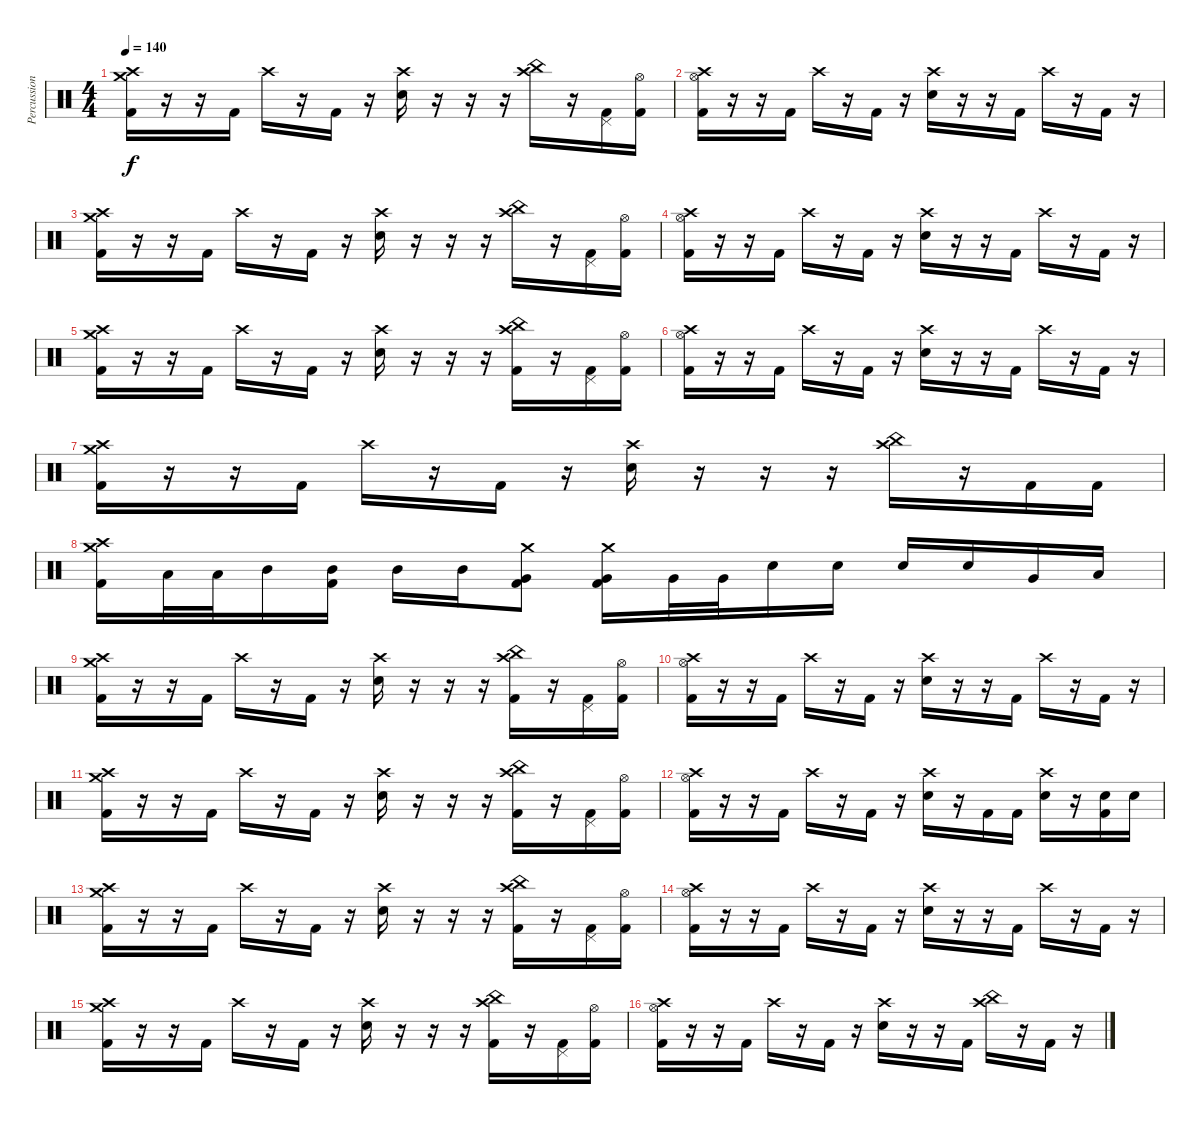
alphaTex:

\track ("Percussion" "Percussion") {instrument percussion}
\staff {score}
\articulation defaults
\ts (4 4)
\tempo 140
\clef neutral
\ks c
("Crash high (hit)" "Crash medium (hit)" "Kick (hit) 2").16{dy f} r.16 r.16 "Kick (hit) 2".16 "Crash high (hit)".16 r.16 "Kick (hit) 2".16 r.16 ("Crash high (hit)" "Snare (hit) 2").16 r.16 r.16 r.16 ("Crash high (hit)" "China (hit)").16 r.16 ("Pedal Hi-Hat (hit)" "Kick (hit) 2").16 ("Hi-Hat (open)" "Kick (hit) 2").16 |
("Crash high (hit)" "Hi-Hat (open)" "Kick (hit) 2").16 r.16 r.16 "Kick (hit) 2".16 "Crash high (hit)".16 r.16 "Kick (hit) 2".16 r.16 ("Crash high (hit)" "Snare (hit) 2").16 r.16 r.16 "Kick (hit) 2".16 "Crash high (hit)".16 r.16 "Kick (hit) 2".16 r.16 |
("Crash high (hit)" "Crash medium (hit)" "Kick (hit) 2").16 r.16 r.16 "Kick (hit) 2".16 "Crash high (hit)".16 r.16 "Kick (hit) 2".16 r.16 ("Crash high (hit)" "Snare (hit) 2").16 r.16 r.16 r.16 ("Crash high (hit)" "China (hit)").16 r.16 ("Pedal Hi-Hat (hit)" "Kick (hit) 2").16 ("Hi-Hat (open)" "Kick (hit) 2").16 |
("Crash high (hit)" "Hi-Hat (open)" "Kick (hit) 2").16 r.16 r.16 "Kick (hit) 2".16 "Crash high (hit)".16 r.16 "Kick (hit) 2".16 r.16 ("Crash high (hit)" "Snare (hit) 2").16 r.16 r.16 "Kick (hit) 2".16 "Crash high (hit)".16 r.16 "Kick (hit) 2".16 r.16 |
("Crash high (hit)" "Crash medium (hit)" "Kick (hit) 2").16 r.16 r.16 "Kick (hit) 2".16 "Crash high (hit)".16 r.16 "Kick (hit) 2".16 r.16 ("Crash high (hit)" "Snare (hit) 2").16 r.16 r.16 r.16 ("Crash high (hit)" "China (hit)" "Kick (hit) 2").16 r.16 ("Pedal Hi-Hat (hit)" "Kick (hit) 2").16 ("Hi-Hat (open)" "Kick (hit) 2").16 |
("Crash high (hit)" "Hi-Hat (open)" "Kick (hit) 2").16 r.16 r.16 "Kick (hit) 2".16 "Crash high (hit)".16 r.16 "Kick (hit) 2".16 r.16 ("Crash high (hit)" "Snare (hit) 2").16 r.16 r.16 "Kick (hit) 2".16 "Crash high (hit)".16 r.16 "Kick (hit) 2".16 r.16 |
("Crash high (hit)" "Crash medium (hit)" "Kick (hit) 2").16 r.16 r.16 "Kick (hit) 2".16 "Crash high (hit)".16 r.16 "Kick (hit) 2".16 r.16 ("Crash high (hit)" "Snare (hit) 2").16 r.16 r.16 r.16 ("Crash high (hit)" "China (hit)").16 r.16 "Kick (hit) 2".16 "Kick (hit) 2".16 |
("Crash high (hit)" "Crash medium (hit)" "Kick (hit) 2").16 "Low Tom (hit)".32 "Low Tom (hit)".32 "Mid Tom (hit)".16 ("Mid Tom (hit)" "Kick (hit) 2").16 "Mid Tom (hit)".16 "Mid Tom (hit)".16 ("Crash medium (hit)" "Very Low Tom (hit)" "Kick (hit) 2").8 ("Crash medium (hit)" "Very Low Tom (hit)" "Kick (hit) 2").16 "Very Low Tom (hit)".32 "Very Low Tom (hit)".32 "Snare (hit) 2".16 "Snare (hit) 2".16 "Snare (hit) 2".16 "Snare (hit) 2".16 "Very Low Tom (hit)".16 "Low Floor Tom (hit)".16 |
("Crash high (hit)" "Crash medium (hit)" "Kick (hit) 2").16 r.16 r.16 "Kick (hit) 2".16 "Crash high (hit)".16 r.16 "Kick (hit) 2".16 r.16 ("Crash high (hit)" "Snare (hit) 2").16 r.16 r.16 r.16 ("Crash high (hit)" "China (hit)" "Kick (hit) 2").16 r.16 ("Pedal Hi-Hat (hit)" "Kick (hit) 2").16 ("Hi-Hat (open)" "Kick (hit) 2").16 |
("Crash high (hit)" "Hi-Hat (open)" "Kick (hit) 2").16 r.16 r.16 "Kick (hit) 2".16 "Crash high (hit)".16 r.16 "Kick (hit) 2".16 r.16 ("Crash high (hit)" "Snare (hit) 2").16 r.16 r.16 "Kick (hit) 2".16 "Crash high (hit)".16 r.16 "Kick (hit) 2".16 r.16 |
("Crash high (hit)" "Crash medium (hit)" "Kick (hit) 2").16 r.16 r.16 "Kick (hit) 2".16 "Crash high (hit)".16 r.16 "Kick (hit) 2".16 r.16 ("Crash high (hit)" "Snare (hit) 2").16 r.16 r.16 r.16 ("Crash high (hit)" "China (hit)" "Kick (hit) 2").16 r.16 ("Pedal Hi-Hat (hit)" "Kick (hit) 2").16 ("Hi-Hat (open)" "Kick (hit) 2").16 |
("Crash high (hit)" "Hi-Hat (open)" "Kick (hit) 2").16 r.16 r.16 "Kick (hit) 2".16 "Crash high (hit)".16 r.16 "Kick (hit) 2".16 r.16 ("Crash high (hit)" "Snare (hit) 2").16 r.16 "Kick (hit) 2".16 "Kick (hit) 2".16 ("Crash high (hit)" "Snare (hit) 2").16 r.16 ("Snare (hit) 2" "Kick (hit) 2").16 "Snare (hit) 2".16 |
("Crash high (hit)" "Crash medium (hit)" "Kick (hit) 2").16 r.16 r.16 "Kick (hit) 2".16 "Crash high (hit)".16 r.16 "Kick (hit) 2".16 r.16 ("Crash high (hit)" "Snare (hit) 2").16 r.16 r.16 r.16 ("Crash high (hit)" "China (hit)" "Kick (hit) 2").16 r.16 ("Pedal Hi-Hat (hit)" "Kick (hit) 2").16 ("Hi-Hat (open)" "Kick (hit) 2").16 |
("Crash high (hit)" "Hi-Hat (open)" "Kick (hit) 2").16 r.16 r.16 "Kick (hit) 2".16 "Crash high (hit)".16 r.16 "Kick (hit) 2".16 r.16 ("Crash high (hit)" "Snare (hit) 2").16 r.16 r.16 "Kick (hit) 2".16 "Crash high (hit)".16 r.16 "Kick (hit) 2".16 r.16 |
("Crash high (hit)" "Crash medium (hit)" "Kick (hit) 2").16 r.16 r.16 "Kick (hit) 2".16 "Crash high (hit)".16 r.16 "Kick (hit) 2".16 r.16 ("Crash high (hit)" "Snare (hit) 2").16 r.16 r.16 r.16 ("Crash high (hit)" "China (hit)" "Kick (hit) 2").16 r.16 ("Pedal Hi-Hat (hit)" "Kick (hit) 2").16 ("Hi-Hat (open)" "Kick (hit) 2").16 |
("Crash high (hit)" "Hi-Hat (open)" "Kick (hit) 2").16 r.16 r.16 "Kick (hit) 2".16 "Crash high (hit)".16 r.16 "Kick (hit) 2".16 r.16 ("Crash high (hit)" "Snare (hit) 2").16 r.16 r.16 "Kick (hit) 2".16 ("Crash high (hit)" "China (hit)").16 r.16 "Kick (hit) 2".16 r.16
